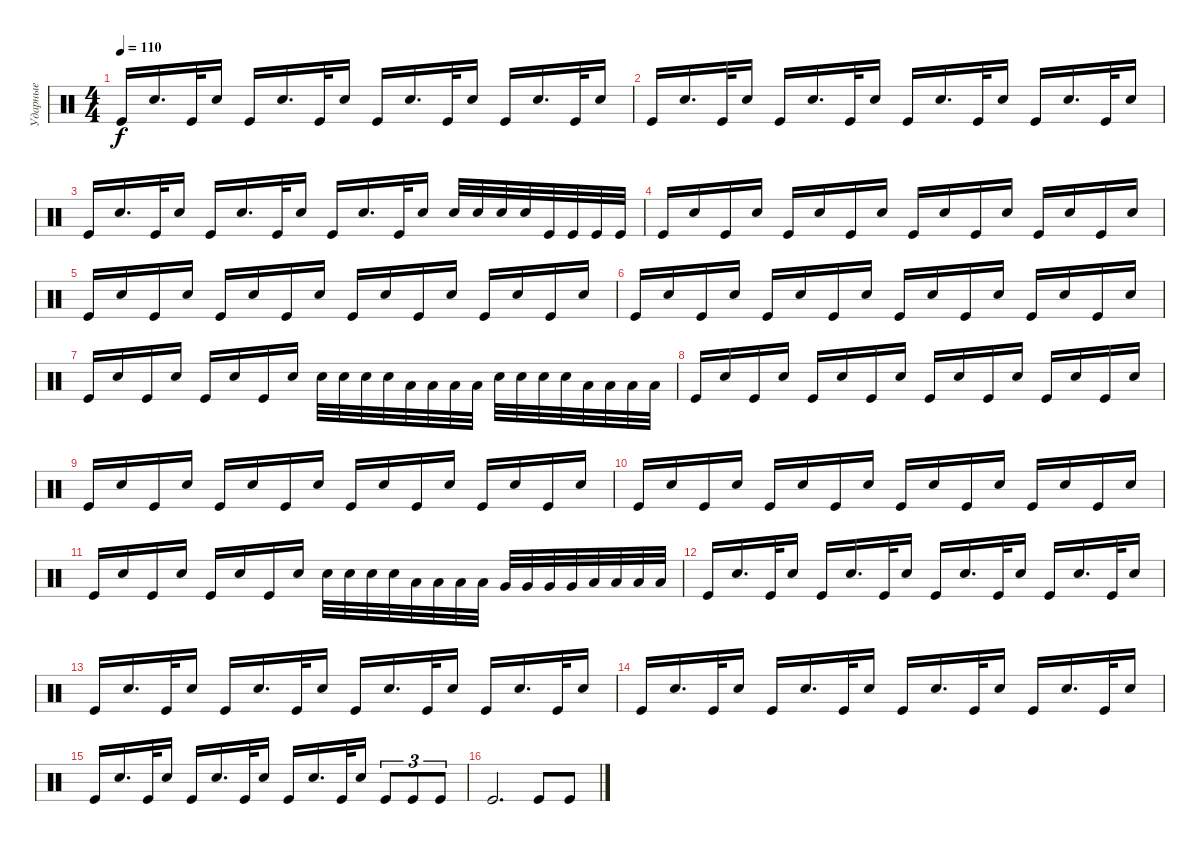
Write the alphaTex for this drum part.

\track ("Ударные" "Ударные") {instrument percussion}
\staff {score}
\articulation defaults
\ts (4 4)
\tempo 110
\clef neutral
\ks c "Kick (hit)".16{dy f} "Snare (hit) 2".16{d} "Kick (hit)".32 "Snare (hit) 2".16 "Kick (hit)".16 "Snare (hit) 2".16{d} "Kick (hit)".32 "Snare (hit) 2".16 "Kick (hit)".16 "Snare (hit) 2".16{d} "Kick (hit)".32 "Snare (hit) 2".16 "Kick (hit)".16 "Snare (hit) 2".16{d} "Kick (hit)".32 "Snare (hit) 2".16
|
"Kick (hit)".16 "Snare (hit) 2".16{d} "Kick (hit)".32 "Snare (hit) 2".16 "Kick (hit)".16 "Snare (hit) 2".16{d} "Kick (hit)".32 "Snare (hit) 2".16 "Kick (hit)".16 "Snare (hit) 2".16{d} "Kick (hit)".32 "Snare (hit) 2".16 "Kick (hit)".16 "Snare (hit) 2".16{d} "Kick (hit)".32 "Snare (hit) 2".16 |
"Kick (hit)".16 "Snare (hit) 2".16{d} "Kick (hit)".32 "Snare (hit) 2".16 "Kick (hit)".16 "Snare (hit) 2".16{d} "Kick (hit)".32 "Snare (hit) 2".16 "Kick (hit)".16 "Snare (hit) 2".16{d} "Kick (hit)".32 "Snare (hit) 2".16 "Snare (hit) 2".32 "Snare (hit) 2".32 "Snare (hit) 2".32 "Snare (hit) 2".32 "Kick (hit)".32 "Kick (hit)".32 "Kick (hit)".32 "Kick (hit)".32 |
"Kick (hit)".16 "Snare (hit) 2".16 "Kick (hit)".16 "Snare (hit) 2".16 "Kick (hit)".16 "Snare (hit) 2".16 "Kick (hit)".16 "Snare (hit) 2".16 "Kick (hit)".16 "Snare (hit) 2".16 "Kick (hit)".16 "Snare (hit) 2".16 "Kick (hit)".16 "Snare (hit) 2".16 "Kick (hit)".16 "Snare (hit) 2".16 |
"Kick (hit)".16 "Snare (hit) 2".16 "Kick (hit)".16 "Snare (hit) 2".16 "Kick (hit)".16 "Snare (hit) 2".16 "Kick (hit)".16 "Snare (hit) 2".16 "Kick (hit)".16 "Snare (hit) 2".16 "Kick (hit)".16 "Snare (hit) 2".16 "Kick (hit)".16 "Snare (hit) 2".16 "Kick (hit)".16 "Snare (hit) 2".16 |
"Kick (hit)".16 "Snare (hit) 2".16 "Kick (hit)".16 "Snare (hit) 2".16 "Kick (hit)".16 "Snare (hit) 2".16 "Kick (hit)".16 "Snare (hit) 2".16 "Kick (hit)".16 "Snare (hit) 2".16 "Kick (hit)".16 "Snare (hit) 2".16 "Kick (hit)".16 "Snare (hit) 2".16 "Kick (hit)".16 "Snare (hit) 2".16 |
"Kick (hit)".16 "Snare (hit) 2".16 "Kick (hit)".16 "Snare (hit) 2".16 "Kick (hit)".16 "Snare (hit) 2".16 "Kick (hit)".16 "Snare (hit) 2".16 "Snare (hit) 2".32 "Snare (hit) 2".32 "Snare (hit) 2".32 "Snare (hit) 2".32 "Low Tom (hit)".32 "Low Tom (hit)".32 "Low Tom (hit)".32 "Low Tom (hit)".32 "Snare (hit) 2".32 "Snare (hit) 2".32 "Snare (hit) 2".32 "Snare (hit) 2".32 "Low Floor Tom (hit)".32 "Low Floor Tom (hit)".32 "Low Floor Tom (hit)".32 "Low Floor Tom (hit)".32 |
"Kick (hit)".16 "Snare (hit) 2".16 "Kick (hit)".16 "Snare (hit) 2".16 "Kick (hit)".16 "Snare (hit) 2".16 "Kick (hit)".16 "Snare (hit) 2".16 "Kick (hit)".16 "Snare (hit) 2".16 "Kick (hit)".16 "Snare (hit) 2".16 "Kick (hit)".16 "Snare (hit) 2".16 "Kick (hit)".16 "Snare (hit) 2".16 |
"Kick (hit)".16 "Snare (hit) 2".16 "Kick (hit)".16 "Snare (hit) 2".16 "Kick (hit)".16 "Snare (hit) 2".16 "Kick (hit)".16 "Snare (hit) 2".16 "Kick (hit)".16 "Snare (hit) 2".16 "Kick (hit)".16 "Snare (hit) 2".16 "Kick (hit)".16 "Snare (hit) 2".16 "Kick (hit)".16 "Snare (hit) 2".16 |
"Kick (hit)".16 "Snare (hit) 2".16 "Kick (hit)".16 "Snare (hit) 2".16 "Kick (hit)".16 "Snare (hit) 2".16 "Kick (hit)".16 "Snare (hit) 2".16 "Kick (hit)".16 "Snare (hit) 2".16 "Kick (hit)".16 "Snare (hit) 2".16 "Kick (hit)".16 "Snare (hit) 2".16 "Kick (hit)".16 "Snare (hit) 2".16 |
"Kick (hit)".16 "Snare (hit) 2".16 "Kick (hit)".16 "Snare (hit) 2".16 "Kick (hit)".16 "Snare (hit) 2".16 "Kick (hit)".16 "Snare (hit) 2".16 "Snare (hit) 2".32 "Snare (hit) 2".32 "Snare (hit) 2".32 "Snare (hit) 2".32 "Low Tom (hit)".32 "Low Tom (hit)".32 "Low Tom (hit)".32 "Low Tom (hit)".32 "Very Low Tom (hit)".32 "Very Low Tom (hit)".32 "Very Low Tom (hit)".32 "Very Low Tom (hit)".32 "Low Floor Tom (hit)".32 "Low Floor Tom (hit)".32 "Low Floor Tom (hit)".32 "Low Floor Tom (hit)".32 |
"Kick (hit)".16 "Snare (hit) 2".16{d} "Kick (hit)".32 "Snare (hit) 2".16 "Kick (hit)".16 "Snare (hit) 2".16{d} "Kick (hit)".32 "Snare (hit) 2".16 "Kick (hit)".16 "Snare (hit) 2".16{d} "Kick (hit)".32 "Snare (hit) 2".16 "Kick (hit)".16 "Snare (hit) 2".16{d} "Kick (hit)".32 "Snare (hit) 2".16 |
"Kick (hit)".16 "Snare (hit) 2".16{d} "Kick (hit)".32 "Snare (hit) 2".16 "Kick (hit)".16 "Snare (hit) 2".16{d} "Kick (hit)".32 "Snare (hit) 2".16 "Kick (hit)".16 "Snare (hit) 2".16{d} "Kick (hit)".32 "Snare (hit) 2".16 "Kick (hit)".16 "Snare (hit) 2".16{d} "Kick (hit)".32 "Snare (hit) 2".16 |
"Kick (hit)".16 "Snare (hit) 2".16{d} "Kick (hit)".32 "Snare (hit) 2".16 "Kick (hit)".16 "Snare (hit) 2".16{d} "Kick (hit)".32 "Snare (hit) 2".16 "Kick (hit)".16 "Snare (hit) 2".16{d} "Kick (hit)".32 "Snare (hit) 2".16 "Kick (hit)".16 "Snare (hit) 2".16{d} "Kick (hit)".32 "Snare (hit) 2".16 |
"Kick (hit)".16 "Snare (hit) 2".16{d} "Kick (hit)".32 "Snare (hit) 2".16 "Kick (hit)".16 "Snare (hit) 2".16{d} "Kick (hit)".32 "Snare (hit) 2".16 "Kick (hit)".16 "Snare (hit) 2".16{d} "Kick (hit)".32 "Snare (hit) 2".16 "Kick (hit)".8{tu (3 2)} "Kick (hit)".8{tu (3 2)} "Kick (hit)".8{tu (3 2)} |
"Kick (hit)".2{d} "Kick (hit)".8 "Kick (hit)".8
